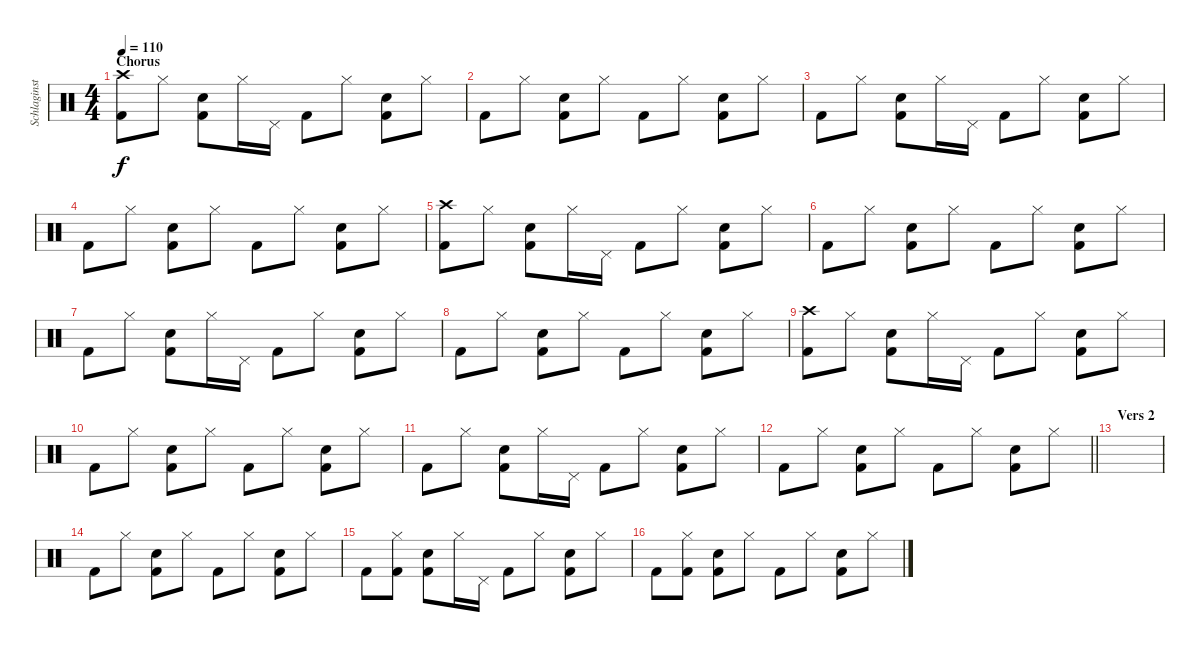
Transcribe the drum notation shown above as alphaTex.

\track ("Schlaginstrumente - Auswahl" "Schlaginst") {instrument percussion}
\staff {score}
\articulation defaults
\ts (4 4)
\section ("" "Chorus")
\tempo 110
\clef neutral
\ks c
("Crash high (hit)" "Kick (hit) 2").8{dy f} "Hi-Hat (closed)".8 ("Snare (hit) 2" "Kick (hit) 2").8 "Hi-Hat (closed)".16 "Pedal Hi-Hat (hit)".16 "Kick (hit) 2".8 "Hi-Hat (closed)".8 ("Snare (hit) 2" "Kick (hit) 2").8 "Hi-Hat (closed)".8 |
"Kick (hit) 2".8 "Hi-Hat (closed)".8 ("Snare (hit) 2" "Kick (hit) 2").8 "Hi-Hat (closed)".8 "Kick (hit) 2".8 "Hi-Hat (closed)".8 ("Snare (hit) 2" "Kick (hit) 2").8 "Hi-Hat (closed)".8 |
"Kick (hit) 2".8 "Hi-Hat (closed)".8 ("Snare (hit) 2" "Kick (hit) 2").8 "Hi-Hat (closed)".16 "Pedal Hi-Hat (hit)".16 "Kick (hit) 2".8 "Hi-Hat (closed)".8 ("Snare (hit) 2" "Kick (hit) 2").8 "Hi-Hat (closed)".8 |
"Kick (hit) 2".8 "Hi-Hat (closed)".8 ("Snare (hit) 2" "Kick (hit) 2").8 "Hi-Hat (closed)".8 "Kick (hit) 2".8 "Hi-Hat (closed)".8 ("Snare (hit) 2" "Kick (hit) 2").8 "Hi-Hat (closed)".8 |
("Crash high (hit)" "Kick (hit) 2").8 "Hi-Hat (closed)".8 ("Snare (hit) 2" "Kick (hit) 2").8 "Hi-Hat (closed)".16 "Pedal Hi-Hat (hit)".16 "Kick (hit) 2".8 "Hi-Hat (closed)".8 ("Snare (hit) 2" "Kick (hit) 2").8 "Hi-Hat (closed)".8 |
"Kick (hit) 2".8 "Hi-Hat (closed)".8 ("Snare (hit) 2" "Kick (hit) 2").8 "Hi-Hat (closed)".8 "Kick (hit) 2".8 "Hi-Hat (closed)".8 ("Snare (hit) 2" "Kick (hit) 2").8 "Hi-Hat (closed)".8 |
"Kick (hit) 2".8 "Hi-Hat (closed)".8 ("Snare (hit) 2" "Kick (hit) 2").8 "Hi-Hat (closed)".16 "Pedal Hi-Hat (hit)".16 "Kick (hit) 2".8 "Hi-Hat (closed)".8 ("Snare (hit) 2" "Kick (hit) 2").8 "Hi-Hat (closed)".8 |
"Kick (hit) 2".8 "Hi-Hat (closed)".8 ("Snare (hit) 2" "Kick (hit) 2").8 "Hi-Hat (closed)".8 "Kick (hit) 2".8 "Hi-Hat (closed)".8 ("Snare (hit) 2" "Kick (hit) 2").8 "Hi-Hat (closed)".8 |
("Crash high (hit)" "Kick (hit) 2").8 "Hi-Hat (closed)".8 ("Snare (hit) 2" "Kick (hit) 2").8 "Hi-Hat (closed)".16 "Pedal Hi-Hat (hit)".16 "Kick (hit) 2".8 "Hi-Hat (closed)".8 ("Snare (hit) 2" "Kick (hit) 2").8 "Hi-Hat (closed)".8 |
"Kick (hit) 2".8 "Hi-Hat (closed)".8 ("Snare (hit) 2" "Kick (hit) 2").8 "Hi-Hat (closed)".8 "Kick (hit) 2".8 "Hi-Hat (closed)".8 ("Snare (hit) 2" "Kick (hit) 2").8 "Hi-Hat (closed)".8 |
"Kick (hit) 2".8 "Hi-Hat (closed)".8 ("Snare (hit) 2" "Kick (hit) 2").8 "Hi-Hat (closed)".16 "Pedal Hi-Hat (hit)".16 "Kick (hit) 2".8 "Hi-Hat (closed)".8 ("Snare (hit) 2" "Kick (hit) 2").8 "Hi-Hat (closed)".8 |
\barLineRight lightlight "Kick (hit) 2".8 "Hi-Hat (closed)".8
("Snare (hit) 2" "Kick (hit) 2").8 "Hi-Hat (closed)".8 "Kick (hit) 2".8 "Hi-Hat (closed)".8 ("Snare (hit) 2" "Kick (hit) 2").8 "Hi-Hat (closed)".8 |
\section ("" "Vers 2")
|
"Kick (hit) 2".8 "Hi-Hat (closed)".8 ("Snare (hit) 2" "Kick (hit) 2").8 "Hi-Hat (closed)".8 "Kick (hit) 2".8 "Hi-Hat (closed)".8 ("Snare (hit) 2" "Kick (hit) 2").8 "Hi-Hat (closed)".8 |
"Kick (hit) 2".8 ("Hi-Hat (closed)" "Kick (hit) 2").8 ("Snare (hit) 2" "Kick (hit) 2").8 "Hi-Hat (closed)".16 "Pedal Hi-Hat (hit)".16 "Kick (hit) 2".8 "Hi-Hat (closed)".8 ("Snare (hit) 2" "Kick (hit) 2").8 "Hi-Hat (closed)".8 |
"Kick (hit) 2".8 ("Hi-Hat (closed)" "Kick (hit) 2").8 ("Snare (hit) 2" "Kick (hit) 2").8 "Hi-Hat (closed)".8 "Kick (hit) 2".8 "Hi-Hat (closed)".8 ("Snare (hit) 2" "Kick (hit) 2").8 "Hi-Hat (closed)".8
